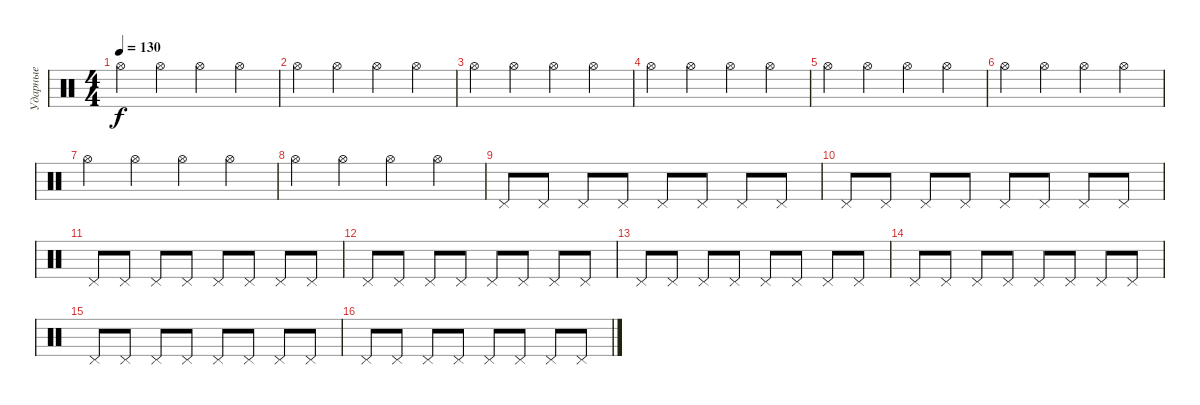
\track ("Ударные" "Ударные") {instrument percussion}
\staff {score}
\articulation defaults
\ts (4 4)
\tempo 130
\clef neutral
\ks c "Hi-Hat (open)".4{dy f} "Hi-Hat (open)".4 "Hi-Hat (open)".4 "Hi-Hat (open)".4
|
"Hi-Hat (open)".4 "Hi-Hat (open)".4 "Hi-Hat (open)".4 "Hi-Hat (open)".4 |
"Hi-Hat (open)".4 "Hi-Hat (open)".4 "Hi-Hat (open)".4 "Hi-Hat (open)".4 |
"Hi-Hat (open)".4 "Hi-Hat (open)".4 "Hi-Hat (open)".4 "Hi-Hat (open)".4 |
"Hi-Hat (open)".4 "Hi-Hat (open)".4 "Hi-Hat (open)".4 "Hi-Hat (open)".4 |
"Hi-Hat (open)".4 "Hi-Hat (open)".4 "Hi-Hat (open)".4 "Hi-Hat (open)".4 |
"Hi-Hat (open)".4 "Hi-Hat (open)".4 "Hi-Hat (open)".4 "Hi-Hat (open)".4 |
"Hi-Hat (open)".4 "Hi-Hat (open)".4 "Hi-Hat (open)".4 "Hi-Hat (open)".4 |
"Pedal Hi-Hat (hit)".8 "Pedal Hi-Hat (hit)".8 "Pedal Hi-Hat (hit)".8 "Pedal Hi-Hat (hit)".8 "Pedal Hi-Hat (hit)".8 "Pedal Hi-Hat (hit)".8 "Pedal Hi-Hat (hit)".8 "Pedal Hi-Hat (hit)".8 |
"Pedal Hi-Hat (hit)".8 "Pedal Hi-Hat (hit)".8 "Pedal Hi-Hat (hit)".8 "Pedal Hi-Hat (hit)".8 "Pedal Hi-Hat (hit)".8 "Pedal Hi-Hat (hit)".8 "Pedal Hi-Hat (hit)".8 "Pedal Hi-Hat (hit)".8 |
"Pedal Hi-Hat (hit)".8 "Pedal Hi-Hat (hit)".8 "Pedal Hi-Hat (hit)".8 "Pedal Hi-Hat (hit)".8 "Pedal Hi-Hat (hit)".8 "Pedal Hi-Hat (hit)".8 "Pedal Hi-Hat (hit)".8 "Pedal Hi-Hat (hit)".8 |
"Pedal Hi-Hat (hit)".8 "Pedal Hi-Hat (hit)".8 "Pedal Hi-Hat (hit)".8 "Pedal Hi-Hat (hit)".8 "Pedal Hi-Hat (hit)".8 "Pedal Hi-Hat (hit)".8 "Pedal Hi-Hat (hit)".8 "Pedal Hi-Hat (hit)".8 |
"Pedal Hi-Hat (hit)".8 "Pedal Hi-Hat (hit)".8 "Pedal Hi-Hat (hit)".8 "Pedal Hi-Hat (hit)".8 "Pedal Hi-Hat (hit)".8 "Pedal Hi-Hat (hit)".8 "Pedal Hi-Hat (hit)".8 "Pedal Hi-Hat (hit)".8 |
"Pedal Hi-Hat (hit)".8 "Pedal Hi-Hat (hit)".8 "Pedal Hi-Hat (hit)".8 "Pedal Hi-Hat (hit)".8 "Pedal Hi-Hat (hit)".8 "Pedal Hi-Hat (hit)".8 "Pedal Hi-Hat (hit)".8 "Pedal Hi-Hat (hit)".8 |
"Pedal Hi-Hat (hit)".8 "Pedal Hi-Hat (hit)".8 "Pedal Hi-Hat (hit)".8 "Pedal Hi-Hat (hit)".8 "Pedal Hi-Hat (hit)".8 "Pedal Hi-Hat (hit)".8 "Pedal Hi-Hat (hit)".8 "Pedal Hi-Hat (hit)".8 |
"Pedal Hi-Hat (hit)".8 "Pedal Hi-Hat (hit)".8 "Pedal Hi-Hat (hit)".8 "Pedal Hi-Hat (hit)".8 "Pedal Hi-Hat (hit)".8 "Pedal Hi-Hat (hit)".8 "Pedal Hi-Hat (hit)".8 "Pedal Hi-Hat (hit)".8
